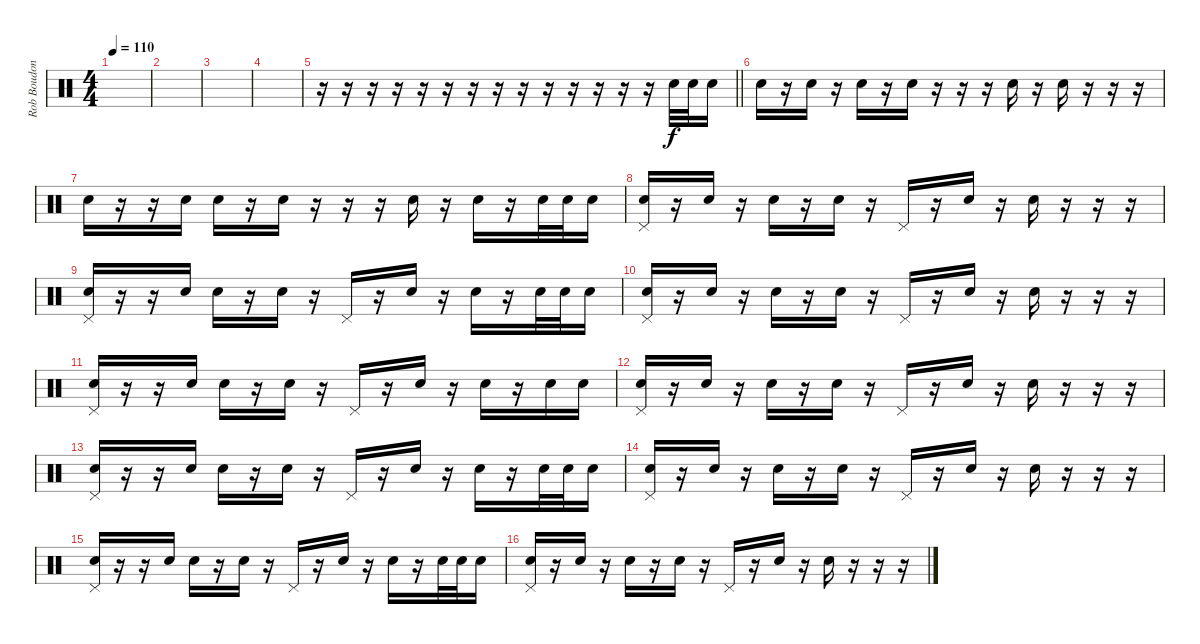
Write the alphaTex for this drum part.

\track ("Rob Boudon [Drums]" "Rob Boudon") {instrument percussion}
\staff {score}
\articulation defaults
\ts (4 4)
\tempo 110
\clef neutral
\ks c
|
|
|
|
\barLineRight lightlight
r.16 r.16 r.16 r.16 r.16 r.16 r.16 r.16 r.16 r.16 r.16 r.16 r.16 r.16 "Electric Snare (hit)".32 "Electric Snare (hit)".32 "Electric Snare (hit)".16 |
"Electric Snare (hit)".16 r.16 "Electric Snare (hit)".16 r.16 "Electric Snare (hit)".16 r.16 "Electric Snare (hit)".16 r.16 r.16 r.16 "Electric Snare (hit)".16 r.16 "Electric Snare (hit)".16 r.16 r.16 r.16 |
"Electric Snare (hit)".16 r.16 r.16 "Electric Snare (hit)".16 "Electric Snare (hit)".16 r.16 "Electric Snare (hit)".16 r.16 r.16 r.16 "Electric Snare (hit)".16 r.16 "Electric Snare (hit)".16 r.16 "Electric Snare (hit)".32 "Electric Snare (hit)".32 "Electric Snare (hit)".16 |
("Pedal Hi-Hat (hit)" "Electric Snare (hit)").16 r.16 "Electric Snare (hit)".16 r.16 "Electric Snare (hit)".16 r.16 "Electric Snare (hit)".16 r.16 "Pedal Hi-Hat (hit)".16 r.16 "Electric Snare (hit)".16 r.16 "Electric Snare (hit)".16 r.16 r.16 r.16 |
("Pedal Hi-Hat (hit)" "Electric Snare (hit)").16 r.16 r.16 "Electric Snare (hit)".16 "Electric Snare (hit)".16 r.16 "Electric Snare (hit)".16 r.16 "Pedal Hi-Hat (hit)".16 r.16 "Electric Snare (hit)".16 r.16 "Electric Snare (hit)".16 r.16 "Electric Snare (hit)".32 "Electric Snare (hit)".32 "Electric Snare (hit)".16 |
("Pedal Hi-Hat (hit)" "Electric Snare (hit)").16 r.16 "Electric Snare (hit)".16 r.16 "Electric Snare (hit)".16 r.16 "Electric Snare (hit)".16 r.16 "Pedal Hi-Hat (hit)".16 r.16 "Electric Snare (hit)".16 r.16 "Electric Snare (hit)".16 r.16 r.16 r.16 |
("Pedal Hi-Hat (hit)" "Electric Snare (hit)").16 r.16 r.16 "Electric Snare (hit)".16 "Electric Snare (hit)".16 r.16 "Electric Snare (hit)".16 r.16 "Pedal Hi-Hat (hit)".16 r.16 "Electric Snare (hit)".16 r.16 "Electric Snare (hit)".16 r.16 "Electric Snare (hit)".16 "Electric Snare (hit)".16 |
("Pedal Hi-Hat (hit)" "Electric Snare (hit)").16 r.16 "Electric Snare (hit)".16 r.16 "Electric Snare (hit)".16 r.16 "Electric Snare (hit)".16 r.16 "Pedal Hi-Hat (hit)".16 r.16 "Electric Snare (hit)".16 r.16 "Electric Snare (hit)".16 r.16 r.16 r.16 |
("Pedal Hi-Hat (hit)" "Electric Snare (hit)").16 r.16 r.16 "Electric Snare (hit)".16 "Electric Snare (hit)".16 r.16 "Electric Snare (hit)".16 r.16 "Pedal Hi-Hat (hit)".16 r.16 "Electric Snare (hit)".16 r.16 "Electric Snare (hit)".16 r.16 "Electric Snare (hit)".32 "Electric Snare (hit)".32 "Electric Snare (hit)".16 |
("Pedal Hi-Hat (hit)" "Electric Snare (hit)").16 r.16 "Electric Snare (hit)".16 r.16 "Electric Snare (hit)".16 r.16 "Electric Snare (hit)".16 r.16 "Pedal Hi-Hat (hit)".16 r.16 "Electric Snare (hit)".16 r.16 "Electric Snare (hit)".16 r.16 r.16 r.16 |
("Pedal Hi-Hat (hit)" "Electric Snare (hit)").16 r.16 r.16 "Electric Snare (hit)".16 "Electric Snare (hit)".16 r.16 "Electric Snare (hit)".16 r.16 "Pedal Hi-Hat (hit)".16 r.16 "Electric Snare (hit)".16 r.16 "Electric Snare (hit)".16 r.16 "Electric Snare (hit)".32 "Electric Snare (hit)".32 "Electric Snare (hit)".16 |
("Pedal Hi-Hat (hit)" "Electric Snare (hit)").16 r.16 "Electric Snare (hit)".16 r.16 "Electric Snare (hit)".16 r.16 "Electric Snare (hit)".16 r.16 "Pedal Hi-Hat (hit)".16 r.16 "Electric Snare (hit)".16 r.16 "Electric Snare (hit)".16 r.16 r.16 r.16
